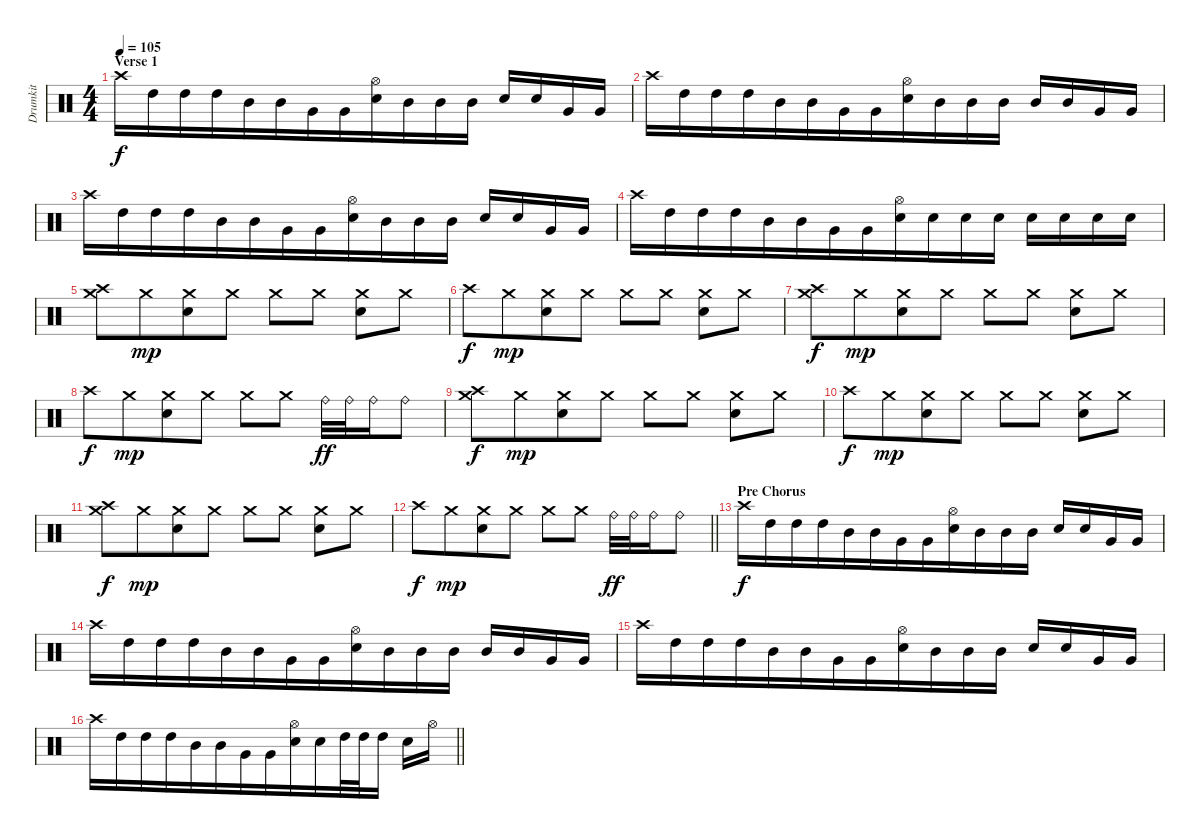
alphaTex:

\track ("Drumkit" "Drumkit") {instrument percussion}
\staff {score}
\articulation defaults
\ts (4 4)
\section ("" "Verse 1")
\tempo 105
\clef neutral
\ks c "Crash high (hit)".16{dy f} "High Tom (hit)".16 "High Tom (hit)".16{beam merge} "High Tom (hit)".16{beam merge} "Mid Tom (hit)".16{beam merge} "Mid Tom (hit)".16 "Very Low Tom (hit)".16 "Very Low Tom (hit)".16{beam merge}
("Hi-Hat (open)" "Electric Snare (hit)").16 "Mid Tom (hit)".16{beam merge} "Mid Tom (hit)".16{beam merge} "Mid Tom (hit)".16 "Electric Snare (hit)".16 "Electric Snare (hit)".16 "Very Low Tom (hit)".16 "Very Low Tom (hit)".16 |
"Crash high (hit)".16 "High Tom (hit)".16 "High Tom (hit)".16{beam merge} "High Tom (hit)".16{beam merge} "Mid Tom (hit)".16{beam merge} "Mid Tom (hit)".16 "Very Low Tom (hit)".16 "Very Low Tom (hit)".16{beam merge} ("Hi-Hat (open)" "Electric Snare (hit)").16 "Mid Tom (hit)".16{beam merge} "Mid Tom (hit)".16{beam merge} "Mid Tom (hit)".16 "Mid Tom (hit)".16 "Mid Tom (hit)".16 "Very Low Tom (hit)".16 "Very Low Tom (hit)".16 |
"Crash high (hit)".16 "High Tom (hit)".16 "High Tom (hit)".16{beam merge} "High Tom (hit)".16{beam merge} "Mid Tom (hit)".16{beam merge} "Mid Tom (hit)".16 "Very Low Tom (hit)".16 "Very Low Tom (hit)".16{beam merge} ("Hi-Hat (open)" "Electric Snare (hit)").16 "Mid Tom (hit)".16{beam merge} "Mid Tom (hit)".16{beam merge} "Mid Tom (hit)".16 "Electric Snare (hit)".16 "Electric Snare (hit)".16 "Very Low Tom (hit)".16 "Very Low Tom (hit)".16 |
"Crash high (hit)".16 "High Tom (hit)".16 "High Tom (hit)".16{beam merge} "High Tom (hit)".16{beam merge} "Mid Tom (hit)".16{beam merge} "Mid Tom (hit)".16 "Very Low Tom (hit)".16 "Very Low Tom (hit)".16{beam merge} ("Hi-Hat (open)" "Electric Snare (hit)").16 "Electric Snare (hit)".16{beam merge} "Electric Snare (hit)".16{beam merge} "Electric Snare (hit)".16 "Electric Snare (hit)".16 "Electric Snare (hit)".16 "Electric Snare (hit)".16 "Electric Snare (hit)".16 |
("Crash medium (hit)" "Crash high (hit)").8 "Crash medium (hit)".8{dy mp beam merge} ("Crash medium (hit)" "Electric Snare (hit)").8 "Crash medium (hit)".8 "Crash medium (hit)".8 "Crash medium (hit)".8 ("Crash medium (hit)" "Electric Snare (hit)").8 "Crash medium (hit)".8 |
"Crash high (hit)".8{dy f} "Crash medium (hit)".8{dy mp beam merge} ("Crash medium (hit)" "Electric Snare (hit)").8 "Crash medium (hit)".8 "Crash medium (hit)".8 "Crash medium (hit)".8 ("Crash medium (hit)" "Electric Snare (hit)").8 "Crash medium (hit)".8 |
("Crash medium (hit)" "Crash high (hit)").8{dy f} "Crash medium (hit)".8{dy mp beam merge} ("Crash medium (hit)" "Electric Snare (hit)").8 "Crash medium (hit)".8 "Crash medium (hit)".8 "Crash medium (hit)".8 ("Crash medium (hit)" "Electric Snare (hit)").8 "Crash medium (hit)".8 |
"Crash high (hit)".8{dy f} "Crash medium (hit)".8{dy mp beam merge} ("Crash medium (hit)" "Electric Snare (hit)").8 "Crash medium (hit)".8 "Crash medium (hit)".8 "Crash medium (hit)".8 "Ride (bell)".32{dy ff} "Ride (bell)".32 "Ride (bell)".16{beam merge} "Ride (bell)".8 |
("Crash medium (hit)" "Crash high (hit)").8{dy f} "Crash medium (hit)".8{dy mp beam merge} ("Crash medium (hit)" "Electric Snare (hit)").8 "Crash medium (hit)".8 "Crash medium (hit)".8 "Crash medium (hit)".8 ("Crash medium (hit)" "Electric Snare (hit)").8 "Crash medium (hit)".8 |
"Crash high (hit)".8{dy f} "Crash medium (hit)".8{dy mp beam merge} ("Crash medium (hit)" "Electric Snare (hit)").8 "Crash medium (hit)".8 "Crash medium (hit)".8 "Crash medium (hit)".8 ("Crash medium (hit)" "Electric Snare (hit)").8 "Crash medium (hit)".8 |
("Crash medium (hit)" "Crash high (hit)").8{dy f} "Crash medium (hit)".8{dy mp beam merge} ("Crash medium (hit)" "Electric Snare (hit)").8 "Crash medium (hit)".8 "Crash medium (hit)".8 "Crash medium (hit)".8 ("Crash medium (hit)" "Electric Snare (hit)").8 "Crash medium (hit)".8 |
\barLineRight lightlight "Crash high (hit)".8{dy f} "Crash medium (hit)".8{dy mp beam merge}
("Crash medium (hit)" "Electric Snare (hit)").8 "Crash medium (hit)".8 "Crash medium (hit)".8 "Crash medium (hit)".8 "Ride (bell)".32{dy ff} "Ride (bell)".32 "Ride (bell)".16{beam merge} "Ride (bell)".8 |
\section ("" "Pre Chorus")
"Crash high (hit)".16{dy f} "High Tom (hit)".16 "High Tom (hit)".16{beam merge} "High Tom (hit)".16{beam merge} "Mid Tom (hit)".16{beam merge} "Mid Tom (hit)".16 "Very Low Tom (hit)".16 "Very Low Tom (hit)".16{beam merge} ("Hi-Hat (open)" "Electric Snare (hit)").16 "Mid Tom (hit)".16{beam merge} "Mid Tom (hit)".16{beam merge} "Mid Tom (hit)".16 "Electric Snare (hit)".16 "Electric Snare (hit)".16 "Very Low Tom (hit)".16 "Very Low Tom (hit)".16 |
"Crash high (hit)".16 "High Tom (hit)".16 "High Tom (hit)".16{beam merge} "High Tom (hit)".16{beam merge} "Mid Tom (hit)".16{beam merge} "Mid Tom (hit)".16 "Very Low Tom (hit)".16 "Very Low Tom (hit)".16{beam merge} ("Hi-Hat (open)" "Electric Snare (hit)").16 "Mid Tom (hit)".16{beam merge} "Mid Tom (hit)".16{beam merge} "Mid Tom (hit)".16 "Mid Tom (hit)".16 "Mid Tom (hit)".16 "Very Low Tom (hit)".16 "Very Low Tom (hit)".16 |
"Crash high (hit)".16 "High Tom (hit)".16 "High Tom (hit)".16{beam merge} "High Tom (hit)".16{beam merge} "Mid Tom (hit)".16{beam merge} "Mid Tom (hit)".16 "Very Low Tom (hit)".16 "Very Low Tom (hit)".16{beam merge} ("Hi-Hat (open)" "Electric Snare (hit)").16 "Mid Tom (hit)".16{beam merge} "Mid Tom (hit)".16{beam merge} "Mid Tom (hit)".16 "Electric Snare (hit)".16 "Electric Snare (hit)".16 "Very Low Tom (hit)".16 "Very Low Tom (hit)".16 |
\barLineRight lightlight "Crash high (hit)".16 "High Tom (hit)".16 "High Tom (hit)".16{beam merge} "High Tom (hit)".16{beam merge} "Mid Tom (hit)".16{beam merge} "Mid Tom (hit)".16 "Very Low Tom (hit)".16 "Very Low Tom (hit)".16{beam merge}
("Hi-Hat (open)" "Electric Snare (hit)").16 "Electric Snare (hit)".16{beam merge} "High Tom (hit)".32{beam merge} "High Tom (hit)".32 "High Tom (hit)".16 "Electric Snare (hit)".16 "Hi-Hat (open)".16
